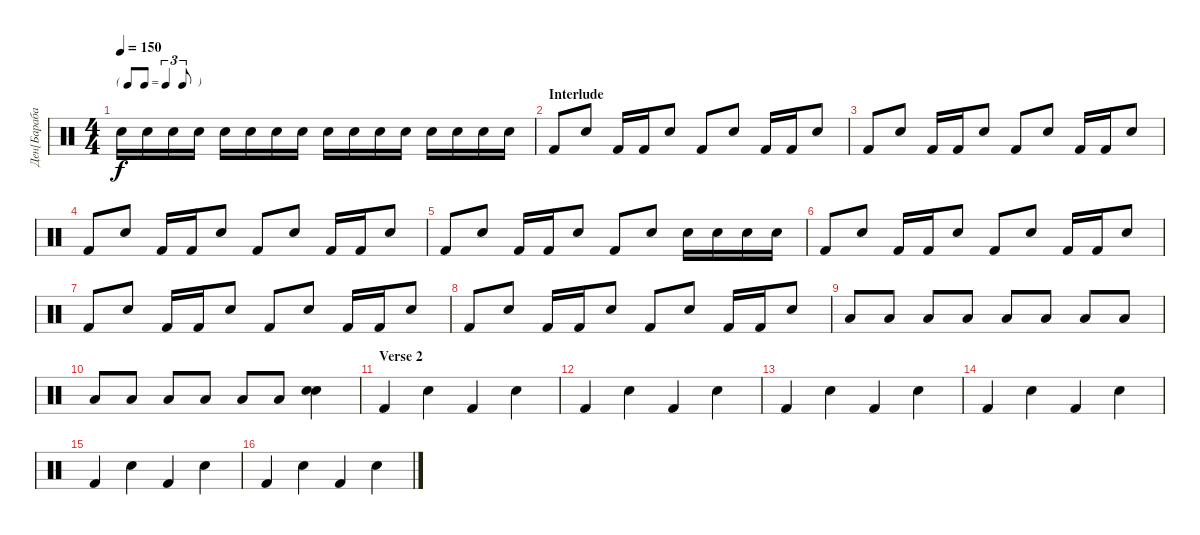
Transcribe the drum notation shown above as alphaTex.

\track ("Ден[Барабаны]" "Ден[Бараба") {instrument percussion}
\staff {score}
\articulation defaults
\ts (4 4)
\tf triplet8th
\tempo 150
\clef neutral
\ks c "Electric Snare (hit)".16{dy f volume 6} "Electric Snare (hit)".16 "Electric Snare (hit)".16{volume 8} "Electric Snare (hit)".16 "Electric Snare (hit)".16{volume 10} "Electric Snare (hit)".16 "Electric Snare (hit)".16{volume 12} "Electric Snare (hit)".16 "Electric Snare (hit)".16{volume 14} "Electric Snare (hit)".16 "Electric Snare (hit)".16 "Electric Snare (hit)".16 "Electric Snare (hit)".16 "Electric Snare (hit)".16 "Electric Snare (hit)".16 "Electric Snare (hit)".16
|
\section ("" "Interlude")
"Kick (hit) 2".8 "Electric Snare (hit)".8 "Kick (hit) 2".16 "Kick (hit) 2".16 "Electric Snare (hit)".8 "Kick (hit) 2".8 "Electric Snare (hit)".8 "Kick (hit) 2".16 "Kick (hit) 2".16 "Electric Snare (hit)".8 |
"Kick (hit) 2".8 "Electric Snare (hit)".8 "Kick (hit) 2".16 "Kick (hit) 2".16 "Electric Snare (hit)".8 "Kick (hit) 2".8 "Electric Snare (hit)".8 "Kick (hit) 2".16 "Kick (hit) 2".16 "Electric Snare (hit)".8 |
"Kick (hit) 2".8 "Electric Snare (hit)".8 "Kick (hit) 2".16 "Kick (hit) 2".16 "Electric Snare (hit)".8 "Kick (hit) 2".8 "Electric Snare (hit)".8 "Kick (hit) 2".16 "Kick (hit) 2".16 "Electric Snare (hit)".8 |
"Kick (hit) 2".8 "Electric Snare (hit)".8 "Kick (hit) 2".16 "Kick (hit) 2".16 "Electric Snare (hit)".8 "Kick (hit) 2".8 "Electric Snare (hit)".8 "Electric Snare (hit)".16 "Electric Snare (hit)".16 "Electric Snare (hit)".16 "Electric Snare (hit)".16 |
"Kick (hit) 2".8 "Electric Snare (hit)".8 "Kick (hit) 2".16 "Kick (hit) 2".16 "Electric Snare (hit)".8 "Kick (hit) 2".8 "Electric Snare (hit)".8 "Kick (hit) 2".16 "Kick (hit) 2".16 "Electric Snare (hit)".8 |
"Kick (hit) 2".8 "Electric Snare (hit)".8 "Kick (hit) 2".16 "Kick (hit) 2".16 "Electric Snare (hit)".8 "Kick (hit) 2".8 "Electric Snare (hit)".8 "Kick (hit) 2".16 "Kick (hit) 2".16 "Electric Snare (hit)".8 |
"Kick (hit) 2".8 "Electric Snare (hit)".8 "Kick (hit) 2".16 "Kick (hit) 2".16 "Electric Snare (hit)".8 "Kick (hit) 2".8 "Electric Snare (hit)".8 "Kick (hit) 2".16 "Kick (hit) 2".16 "Electric Snare (hit)".8 |
"Low Floor Tom (hit)".8 "Low Floor Tom (hit)".8 "Low Floor Tom (hit)".8 "Low Floor Tom (hit)".8 "Low Floor Tom (hit)".8 "Low Floor Tom (hit)".8 "Low Floor Tom (hit)".8 "Low Floor Tom (hit)".8 |
"Low Floor Tom (hit)".8 "Low Floor Tom (hit)".8 "Low Floor Tom (hit)".8 "Low Floor Tom (hit)".8 "Low Floor Tom (hit)".8 "Low Floor Tom (hit)".8 ("Electric Snare (hit)" "Electric Snare (hit)").4 |
\section ("" "Verse 2")
"Kick (hit) 2".4 "Electric Snare (hit)".4 "Kick (hit) 2".4 "Electric Snare (hit)".4 |
"Kick (hit) 2".4 "Electric Snare (hit)".4 "Kick (hit) 2".4 "Electric Snare (hit)".4 |
"Kick (hit) 2".4 "Electric Snare (hit)".4 "Kick (hit) 2".4 "Electric Snare (hit)".4 |
"Kick (hit) 2".4 "Electric Snare (hit)".4 "Kick (hit) 2".4 "Electric Snare (hit)".4 |
"Kick (hit) 2".4 "Electric Snare (hit)".4 "Kick (hit) 2".4 "Electric Snare (hit)".4 |
"Kick (hit) 2".4 "Electric Snare (hit)".4 "Kick (hit) 2".4 "Electric Snare (hit)".4
